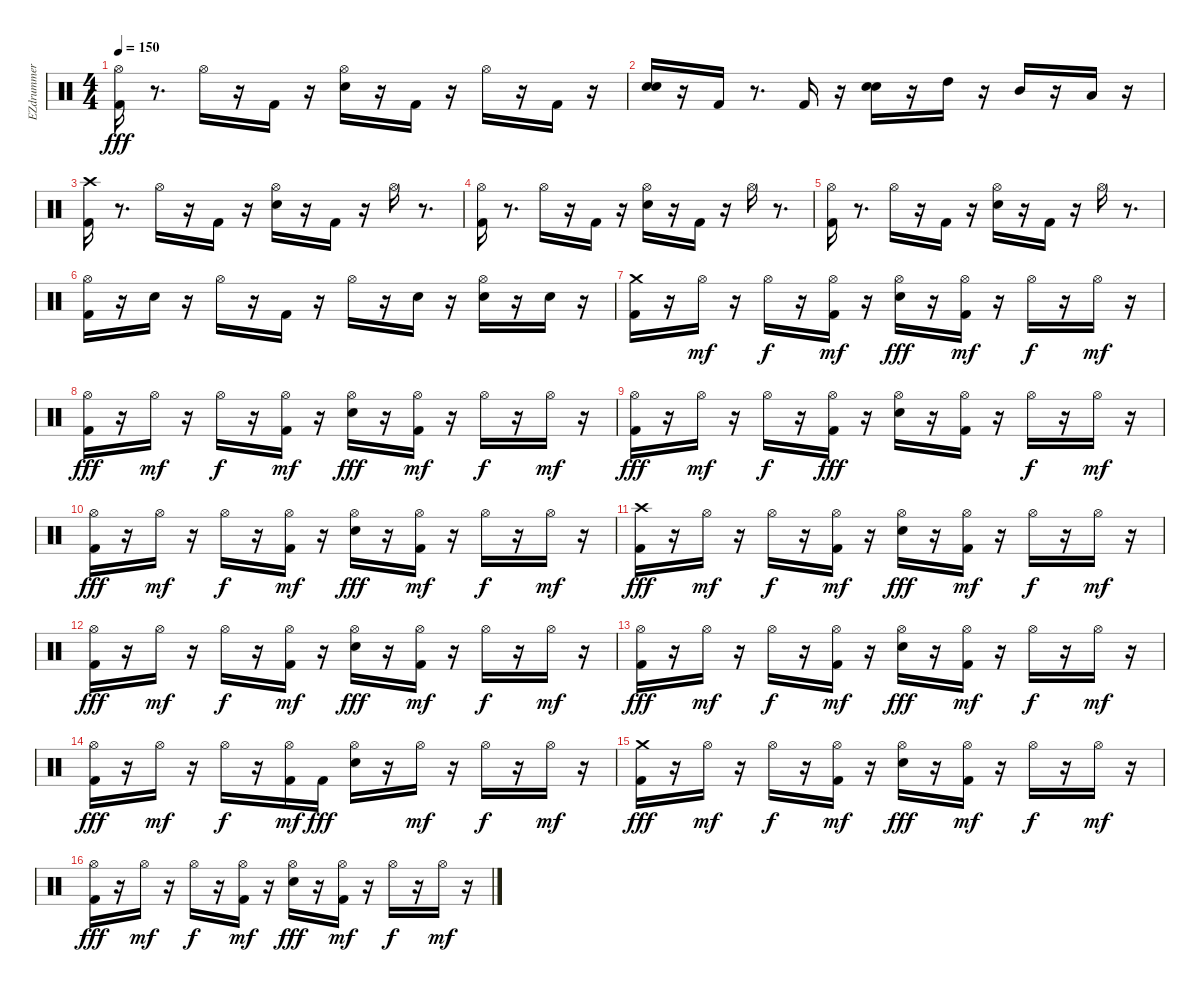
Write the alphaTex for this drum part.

\track ("EZdrummer 01" "EZdrummer ") {instrument percussion}
\staff {score}
\articulation defaults
\ts (4 4)
\tempo 150
\clef neutral
\ks c
("Kick (hit) 2" "Hi-Hat (open)").16{dy fff} r.8{d} "Hi-Hat (open)".16 r.16 "Kick (hit) 2".16 r.16 ("Electric Snare (hit)" "Hi-Hat (open)").16 r.16 "Kick (hit) 2".16 r.16 "Hi-Hat (open)".16 r.16 "Kick (hit) 2".16 r.16 |
("Electric Snare (hit)" "Electric Snare (hit)").16 r.16 "Kick (hit) 2".16 r.8{d} "Kick (hit) 2".16 r.16 ("Electric Snare (hit)" "Electric Snare (hit)").16 r.16 "High Tom (hit)".16 r.16 "Mid Tom (hit)".16 r.16 "Low Tom (hit)".16 r.16 |
("Kick (hit) 2" "Crash high (hit)").16 r.8{d} "Hi-Hat (open)".16 r.16 "Kick (hit) 2".16 r.16 ("Electric Snare (hit)" "Hi-Hat (open)").16 r.16 "Kick (hit) 2".16 r.16 "Hi-Hat (open)".16 r.8{d} |
("Kick (hit) 2" "Hi-Hat (open)").16 r.8{d} "Hi-Hat (open)".16 r.16 "Kick (hit) 2".16 r.16 ("Electric Snare (hit)" "Hi-Hat (open)").16 r.16 "Kick (hit) 2".16 r.16 "Hi-Hat (open)".16 r.8{d} |
("Kick (hit) 2" "Hi-Hat (open)").16 r.8{d} "Hi-Hat (open)".16 r.16 "Kick (hit) 2".16 r.16 ("Electric Snare (hit)" "Hi-Hat (open)").16 r.16 "Kick (hit) 2".16 r.16 "Hi-Hat (open)".16 r.8{d} |
("Kick (hit) 2" "Hi-Hat (open)").16 r.16 "Electric Snare (hit)".16 r.16 "Hi-Hat (open)".16 r.16 "Kick (hit) 2".16 r.16 "Hi-Hat (open)".16 r.16 "Electric Snare (hit)".16 r.16 ("Electric Snare (hit)" "Hi-Hat (open)").16 r.16 "Electric Snare (hit)".16 r.16 |
("Kick (hit) 2" "Crash medium (hit)").16 r.16 "Hi-Hat (open)".16{dy mf} r.16 "Hi-Hat (open)".16{dy f} r.16 ("Kick (hit) 2" "Hi-Hat (open)").16{dy mf} r.16 ("Electric Snare (hit)" "Hi-Hat (open)").16{dy fff} r.16 ("Kick (hit) 2" "Hi-Hat (open)").16{dy mf} r.16 "Hi-Hat (open)".16{dy f} r.16 "Hi-Hat (open)".16{dy mf} r.16 |
("Kick (hit) 2" "Hi-Hat (open)").16{dy fff} r.16 "Hi-Hat (open)".16{dy mf} r.16 "Hi-Hat (open)".16{dy f} r.16 ("Kick (hit) 2" "Hi-Hat (open)").16{dy mf} r.16 ("Electric Snare (hit)" "Hi-Hat (open)").16{dy fff} r.16 ("Kick (hit) 2" "Hi-Hat (open)").16{dy mf} r.16 "Hi-Hat (open)".16{dy f} r.16 "Hi-Hat (open)".16{dy mf} r.16 |
("Kick (hit) 2" "Hi-Hat (open)").16{dy fff} r.16 "Hi-Hat (open)".16{dy mf} r.16 "Hi-Hat (open)".16{dy f} r.16 ("Hi-Hat (open)" "Kick (hit) 2").16{dy fff} r.16 ("Electric Snare (hit)" "Hi-Hat (open)").16 r.16 ("Hi-Hat (open)" "Kick (hit) 2").16 r.16 "Hi-Hat (open)".16{dy f} r.16 "Hi-Hat (open)".16{dy mf} r.16 |
("Kick (hit) 2" "Hi-Hat (open)").16{dy fff} r.16 "Hi-Hat (open)".16{dy mf} r.16 "Hi-Hat (open)".16{dy f} r.16 ("Kick (hit) 2" "Hi-Hat (open)").16{dy mf} r.16 ("Electric Snare (hit)" "Hi-Hat (open)").16{dy fff} r.16 ("Kick (hit) 2" "Hi-Hat (open)").16{dy mf} r.16 "Hi-Hat (open)".16{dy f} r.16 "Hi-Hat (open)".16{dy mf} r.16 |
("Kick (hit) 2" "Crash high (hit)").16{dy fff} r.16 "Hi-Hat (open)".16{dy mf} r.16 "Hi-Hat (open)".16{dy f} r.16 ("Kick (hit) 2" "Hi-Hat (open)").16{dy mf} r.16 ("Hi-Hat (open)" "Electric Snare (hit)").16{dy fff} r.16 ("Kick (hit) 2" "Hi-Hat (open)").16{dy mf} r.16 "Hi-Hat (open)".16{dy f} r.16 "Hi-Hat (open)".16{dy mf} r.16 |
("Kick (hit) 2" "Hi-Hat (open)").16{dy fff} r.16 "Hi-Hat (open)".16{dy mf} r.16 "Hi-Hat (open)".16{dy f} r.16 ("Kick (hit) 2" "Hi-Hat (open)").16{dy mf} r.16 ("Electric Snare (hit)" "Hi-Hat (open)").16{dy fff} r.16 ("Kick (hit) 2" "Hi-Hat (open)").16{dy mf} r.16 "Hi-Hat (open)".16{dy f} r.16 "Hi-Hat (open)".16{dy mf} r.16 |
("Kick (hit) 2" "Hi-Hat (open)").16{dy fff} r.16 "Hi-Hat (open)".16{dy mf} r.16 "Hi-Hat (open)".16{dy f} r.16 ("Kick (hit) 2" "Hi-Hat (open)").16{dy mf} r.16 ("Electric Snare (hit)" "Hi-Hat (open)").16{dy fff} r.16 ("Kick (hit) 2" "Hi-Hat (open)").16{dy mf} r.16 "Hi-Hat (open)".16{dy f} r.16 "Hi-Hat (open)".16{dy mf} r.16 |
("Kick (hit) 2" "Hi-Hat (open)").16{dy fff} r.16 "Hi-Hat (open)".16{dy mf} r.16 "Hi-Hat (open)".16{dy f} r.16 ("Kick (hit) 2" "Hi-Hat (open)").16{dy mf} "Kick (hit) 2".16{dy fff} ("Electric Snare (hit)" "Hi-Hat (open)").16 r.16 "Hi-Hat (open)".16{dy mf} r.16 "Hi-Hat (open)".16{dy f} r.16 "Hi-Hat (open)".16{dy mf} r.16 |
("Kick (hit) 2" "Crash medium (hit)").16{dy fff} r.16 "Hi-Hat (open)".16{dy mf} r.16 "Hi-Hat (open)".16{dy f} r.16 ("Kick (hit) 2" "Hi-Hat (open)").16{dy mf} r.16 ("Electric Snare (hit)" "Hi-Hat (open)").16{dy fff} r.16 ("Kick (hit) 2" "Hi-Hat (open)").16{dy mf} r.16 "Hi-Hat (open)".16{dy f} r.16 "Hi-Hat (open)".16{dy mf} r.16 |
("Kick (hit) 2" "Hi-Hat (open)").16{dy fff} r.16 "Hi-Hat (open)".16{dy mf} r.16 "Hi-Hat (open)".16{dy f} r.16 ("Kick (hit) 2" "Hi-Hat (open)").16{dy mf} r.16 ("Electric Snare (hit)" "Hi-Hat (open)").16{dy fff} r.16 ("Kick (hit) 2" "Hi-Hat (open)").16{dy mf} r.16 "Hi-Hat (open)".16{dy f} r.16 "Hi-Hat (open)".16{dy mf} r.16
